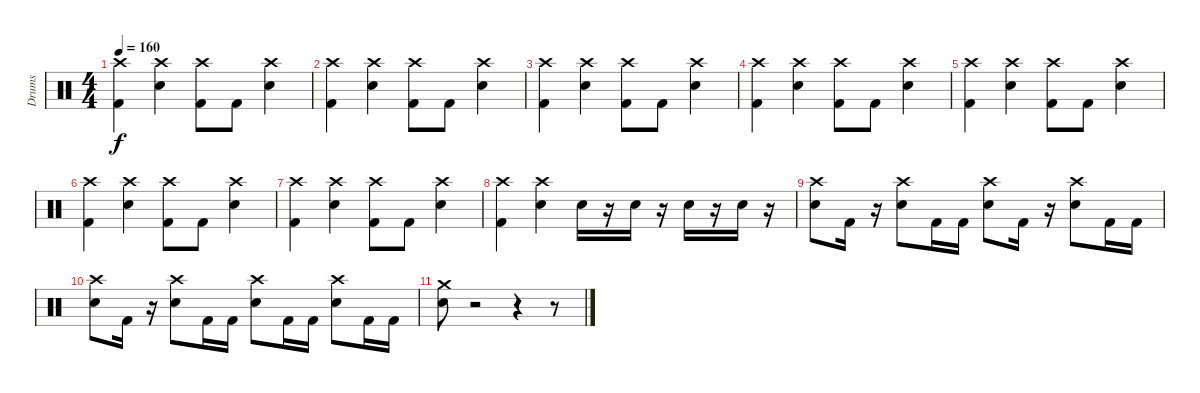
\track ("Drums" "Drums") {instrument percussion}
\staff {score}
\articulation defaults
\ts (4 4)
\tempo 160
\clef neutral
\ks c
("Kick (hit) 2" "Crash high (hit)").4{dy f} ("Electric Snare (hit)" "Crash high (hit)").4 ("Kick (hit) 2" "Crash high (hit)").8 "Kick (hit) 2".8 ("Electric Snare (hit)" "Crash high (hit)").4 |
("Kick (hit) 2" "Crash high (hit)").4 ("Electric Snare (hit)" "Crash high (hit)").4 ("Kick (hit) 2" "Crash high (hit)").8 "Kick (hit) 2".8 ("Electric Snare (hit)" "Crash high (hit)").4 |
("Kick (hit) 2" "Crash high (hit)").4 ("Electric Snare (hit)" "Crash high (hit)").4 ("Kick (hit) 2" "Crash high (hit)").8 "Kick (hit) 2".8 ("Electric Snare (hit)" "Crash high (hit)").4 |
("Kick (hit) 2" "Crash high (hit)").4 ("Electric Snare (hit)" "Crash high (hit)").4 ("Kick (hit) 2" "Crash high (hit)").8 "Kick (hit) 2".8 ("Electric Snare (hit)" "Crash high (hit)").4 |
("Kick (hit) 2" "Crash high (hit)").4 ("Electric Snare (hit)" "Crash high (hit)").4 ("Kick (hit) 2" "Crash high (hit)").8 "Kick (hit) 2".8 ("Electric Snare (hit)" "Crash high (hit)").4 |
("Kick (hit) 2" "Crash high (hit)").4 ("Electric Snare (hit)" "Crash high (hit)").4 ("Kick (hit) 2" "Crash high (hit)").8 "Kick (hit) 2".8 ("Electric Snare (hit)" "Crash high (hit)").4 |
("Kick (hit) 2" "Crash high (hit)").4 ("Electric Snare (hit)" "Crash high (hit)").4 ("Kick (hit) 2" "Crash high (hit)").8 "Kick (hit) 2".8 ("Electric Snare (hit)" "Crash high (hit)").4 |
("Kick (hit) 2" "Crash high (hit)").4 ("Electric Snare (hit)" "Crash high (hit)").4 "Electric Snare (hit)".16 r.16 "Electric Snare (hit)".16 r.16 "Electric Snare (hit)".16 r.16 "Electric Snare (hit)".16 r.16 |
("Electric Snare (hit)" "Crash high (hit)").8 "Kick (hit) 2".16 r.16 ("Electric Snare (hit)" "Crash high (hit)").8 "Kick (hit) 2".16 "Kick (hit) 2".16 ("Electric Snare (hit)" "Crash high (hit)").8 "Kick (hit) 2".16 r.16 ("Electric Snare (hit)" "Crash high (hit)").8 "Kick (hit) 2".16 "Kick (hit) 2".16 |
("Electric Snare (hit)" "Crash high (hit)").8 "Kick (hit) 2".16 r.16 ("Electric Snare (hit)" "Crash high (hit)").8 "Kick (hit) 2".16 "Kick (hit) 2".16 ("Electric Snare (hit)" "Crash high (hit)").8 "Kick (hit) 2".16 "Kick (hit) 2".16 ("Electric Snare (hit)" "Crash high (hit)").8 "Kick (hit) 2".16 "Kick (hit) 2".16 |
("Electric Snare (hit)" "Crash medium (hit)").8 r.2 r.4 r.8
